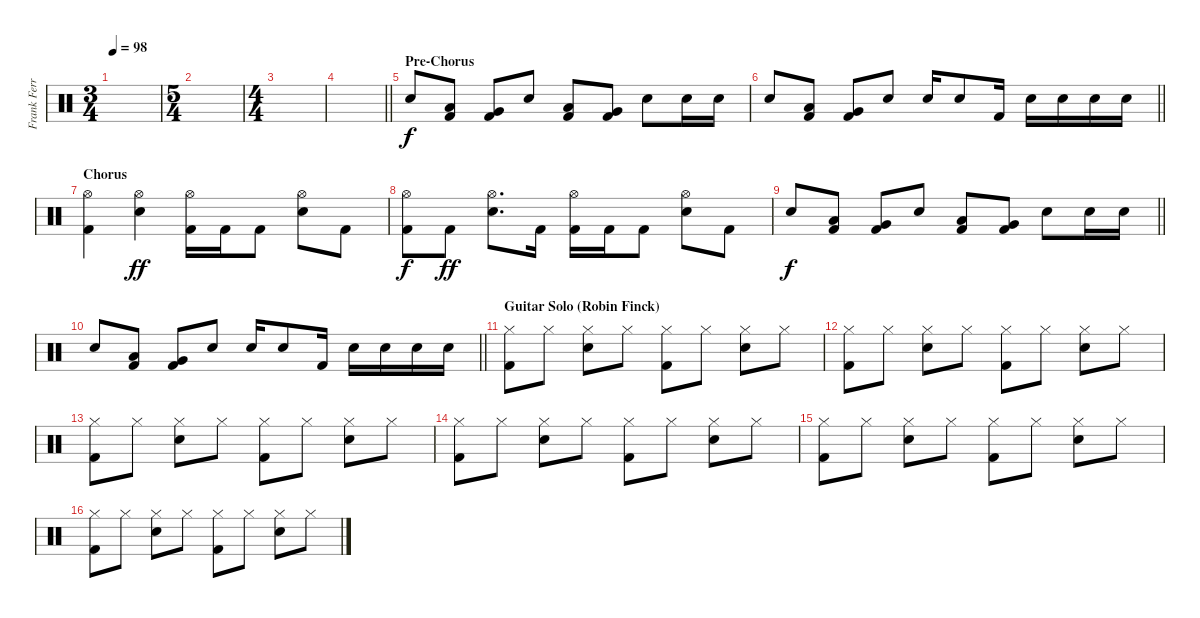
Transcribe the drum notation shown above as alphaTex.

\track ("Frank Ferrer" "Frank Ferr") {instrument percussion}
\staff {score}
\articulation defaults
\ts (3 4)
\tempo 98
\clef neutral
\ks c
|
\ts (5 4)
|
\ts (4 4)
|
\barLineRight lightlight
|
\section ("" "Pre-Chorus")
"Snare (hit) 2".8 ("Low Tom (hit)" "Kick (hit) 2").8 ("Very Low Tom (hit)" "Kick (hit) 2").8 "Snare (hit) 2".8 ("Low Tom (hit)" "Kick (hit) 2").8 ("Very Low Tom (hit)" "Kick (hit) 2").8 "Snare (hit) 2".8 "Snare (hit) 2".16 "Snare (hit) 2".16 |
\barLineRight lightlight "Snare (hit) 2".8
("Low Tom (hit)" "Kick (hit) 2").8 ("Very Low Tom (hit)" "Kick (hit) 2").8 "Snare (hit) 2".8 "Snare (hit) 2".16 "Snare (hit) 2".8 "Kick (hit) 2".16 "Snare (hit) 2".16 "Snare (hit) 2".16 "Snare (hit) 2".16 "Snare (hit) 2".16 |
\section ("" "Chorus")
("Hi-Hat (open)" "Kick (hit) 2").4 ("Hi-Hat (open)" "Snare (hit) 2").4{dy ff} ("Hi-Hat (open)" "Kick (hit) 2").16 "Kick (hit) 2".16 "Kick (hit) 2".8 ("Hi-Hat (open)" "Snare (hit) 2").8 "Kick (hit) 2".8 |
("Hi-Hat (open)" "Kick (hit) 2").8{dy f} "Kick (hit) 2".8{dy ff} ("Hi-Hat (open)" "Snare (hit) 2").8{d} "Kick (hit) 2".16 ("Hi-Hat (open)" "Kick (hit) 2").16 "Kick (hit) 2".16 "Kick (hit) 2".8 ("Hi-Hat (open)" "Snare (hit) 2").8 "Kick (hit) 2".8 |
\barLineRight lightlight "Snare (hit) 2".8{dy f}
("Low Tom (hit)" "Kick (hit) 2").8 ("Very Low Tom (hit)" "Kick (hit) 2").8 "Snare (hit) 2".8 ("Low Tom (hit)" "Kick (hit) 2").8 ("Very Low Tom (hit)" "Kick (hit) 2").8 "Snare (hit) 2".8 "Snare (hit) 2".16 "Snare (hit) 2".16 |
\barLineRight lightlight "Snare (hit) 2".8
("Low Tom (hit)" "Kick (hit) 2").8 ("Very Low Tom (hit)" "Kick (hit) 2").8 "Snare (hit) 2".8 "Snare (hit) 2".16 "Snare (hit) 2".8 "Kick (hit) 2".16 "Snare (hit) 2".16 "Snare (hit) 2".16 "Snare (hit) 2".16 "Snare (hit) 2".16 |
\section ("" "Guitar Solo (Robin Finck)")
("Hi-Hat (closed)" "Kick (hit) 2").8{volume 13} "Hi-Hat (closed)".8 ("Hi-Hat (closed)" "Snare (hit) 2").8 "Hi-Hat (closed)".8 ("Hi-Hat (closed)" "Kick (hit) 2").8 "Hi-Hat (closed)".8 ("Hi-Hat (closed)" "Snare (hit) 2").8 "Hi-Hat (closed)".8 |
("Hi-Hat (closed)" "Kick (hit) 2").8 "Hi-Hat (closed)".8 ("Hi-Hat (closed)" "Snare (hit) 2").8 "Hi-Hat (closed)".8 ("Hi-Hat (closed)" "Kick (hit) 2").8 "Hi-Hat (closed)".8 ("Hi-Hat (closed)" "Snare (hit) 2").8 "Hi-Hat (closed)".8 |
("Hi-Hat (closed)" "Kick (hit) 2").8{volume 13} "Hi-Hat (closed)".8 ("Hi-Hat (closed)" "Snare (hit) 2").8 "Hi-Hat (closed)".8 ("Hi-Hat (closed)" "Kick (hit) 2").8 "Hi-Hat (closed)".8 ("Hi-Hat (closed)" "Snare (hit) 2").8 "Hi-Hat (closed)".8 |
("Hi-Hat (closed)" "Kick (hit) 2").8 "Hi-Hat (closed)".8 ("Hi-Hat (closed)" "Snare (hit) 2").8 "Hi-Hat (closed)".8 ("Hi-Hat (closed)" "Kick (hit) 2").8 "Hi-Hat (closed)".8 ("Hi-Hat (closed)" "Snare (hit) 2").8 "Hi-Hat (closed)".8 |
("Hi-Hat (closed)" "Kick (hit) 2").8{volume 13} "Hi-Hat (closed)".8 ("Hi-Hat (closed)" "Snare (hit) 2").8 "Hi-Hat (closed)".8 ("Hi-Hat (closed)" "Kick (hit) 2").8 "Hi-Hat (closed)".8 ("Hi-Hat (closed)" "Snare (hit) 2").8 "Hi-Hat (closed)".8 |
("Hi-Hat (closed)" "Kick (hit) 2").8 "Hi-Hat (closed)".8 ("Hi-Hat (closed)" "Snare (hit) 2").8 "Hi-Hat (closed)".8 ("Hi-Hat (closed)" "Kick (hit) 2").8 "Hi-Hat (closed)".8 ("Hi-Hat (closed)" "Snare (hit) 2").8 "Hi-Hat (closed)".8
